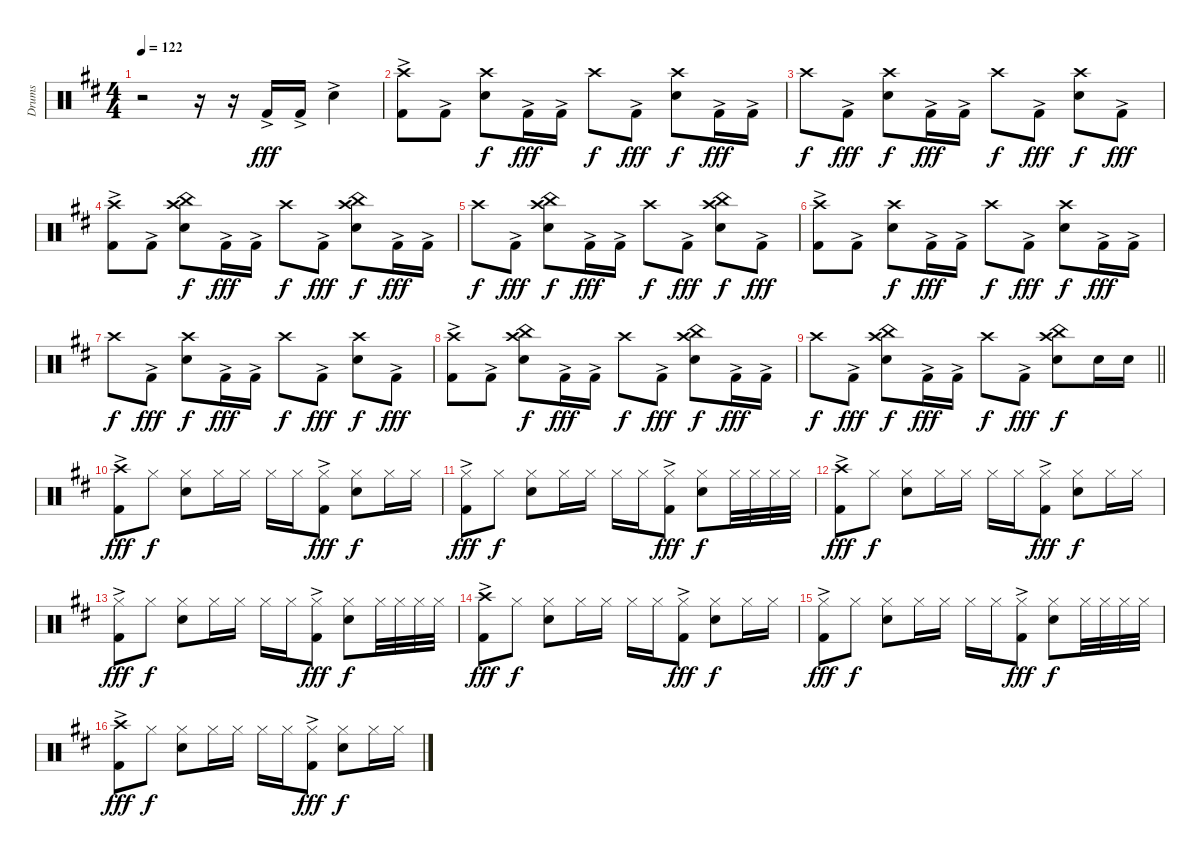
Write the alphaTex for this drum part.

\track ("Drums" "Drums") {instrument percussion}
\staff {score}
\articulation defaults
\ts (4 4)
\tempo 122
\clef neutral
\ks bminor
r.2{dy fff} r.16 r.16 "Kick (hit) 2"{ac}.16 "Kick (hit) 2"{ac}.16 "Snare (hit) 2"{ac}.4 |
("Crash high (hit)" "Kick (hit) 2"{ac}).8 "Kick (hit) 2"{ac}.8 ("Crash high (hit)" "Snare (hit) 2").8{dy f} "Kick (hit) 2"{ac}.16{dy fff} "Kick (hit) 2"{ac}.16 "Crash high (hit)".8{dy f} "Kick (hit) 2"{ac}.8{dy fff} ("Crash high (hit)" "Snare (hit) 2").8{dy f} "Kick (hit) 2"{ac}.16{dy fff} "Kick (hit) 2"{ac}.16 |
"Crash high (hit)".8{dy f} "Kick (hit) 2"{ac}.8{dy fff} ("Crash high (hit)" "Snare (hit) 2").8{dy f} "Kick (hit) 2"{ac}.16{dy fff} "Kick (hit) 2"{ac}.16 "Crash high (hit)".8{dy f} "Kick (hit) 2"{ac}.8{dy fff} ("Crash high (hit)" "Snare (hit) 2").8{dy f} "Kick (hit) 2"{ac}.8{dy fff} |
("Crash high (hit)" "Kick (hit) 2"{ac}).8 "Kick (hit) 2"{ac}.8 ("Crash high (hit)" "China (hit)" "Snare (hit) 2").8{dy f} "Kick (hit) 2"{ac}.16{dy fff} "Kick (hit) 2"{ac}.16 "Crash high (hit)".8{dy f} "Kick (hit) 2"{ac}.8{dy fff} ("Crash high (hit)" "China (hit)" "Snare (hit) 2").8{dy f} "Kick (hit) 2"{ac}.16{dy fff} "Kick (hit) 2"{ac}.16 |
"Crash high (hit)".8{dy f} "Kick (hit) 2"{ac}.8{dy fff} ("Crash high (hit)" "China (hit)" "Snare (hit) 2").8{dy f} "Kick (hit) 2"{ac}.16{dy fff} "Kick (hit) 2"{ac}.16 "Crash high (hit)".8{dy f} "Kick (hit) 2"{ac}.8{dy fff} ("Crash high (hit)" "China (hit)" "Snare (hit) 2").8{dy f} "Kick (hit) 2"{ac}.8{dy fff} |
("Crash high (hit)" "Kick (hit) 2"{ac}).8 "Kick (hit) 2"{ac}.8 ("Crash high (hit)" "Snare (hit) 2").8{dy f} "Kick (hit) 2"{ac}.16{dy fff} "Kick (hit) 2"{ac}.16 "Crash high (hit)".8{dy f} "Kick (hit) 2"{ac}.8{dy fff} ("Crash high (hit)" "Snare (hit) 2").8{dy f} "Kick (hit) 2"{ac}.16{dy fff} "Kick (hit) 2"{ac}.16 |
"Crash high (hit)".8{dy f} "Kick (hit) 2"{ac}.8{dy fff} ("Crash high (hit)" "Snare (hit) 2").8{dy f} "Kick (hit) 2"{ac}.16{dy fff} "Kick (hit) 2"{ac}.16 "Crash high (hit)".8{dy f} "Kick (hit) 2"{ac}.8{dy fff} ("Crash high (hit)" "Snare (hit) 2").8{dy f} "Kick (hit) 2"{ac}.8{dy fff} |
("Crash high (hit)" "Kick (hit) 2"{ac}).8 "Kick (hit) 2"{ac}.8 ("Crash high (hit)" "China (hit)" "Snare (hit) 2").8{dy f} "Kick (hit) 2"{ac}.16{dy fff} "Kick (hit) 2"{ac}.16 "Crash high (hit)".8{dy f} "Kick (hit) 2"{ac}.8{dy fff} ("Crash high (hit)" "China (hit)" "Snare (hit) 2").8{dy f} "Kick (hit) 2"{ac}.16{dy fff} "Kick (hit) 2"{ac}.16 |
\barLineRight lightlight "Crash high (hit)".8{dy f} "Kick (hit) 2"{ac}.8{dy fff}
("Crash high (hit)" "China (hit)" "Snare (hit) 2").8{dy f} "Kick (hit) 2"{ac}.16{dy fff} "Kick (hit) 2"{ac}.16 "Crash high (hit)".8{dy f} "Kick (hit) 2"{ac}.8{dy fff} ("Crash high (hit)" "China (hit)" "Snare (hit) 2").8{dy f} "Snare (hit) 2".16 "Snare (hit) 2".16 |
("Crash high (hit)" "Kick (hit) 2"{ac}).8{dy fff} "Hi-Hat (closed)".8{dy f} ("Hi-Hat (closed)" "Snare (hit) 2").8 "Hi-Hat (closed)".16 "Hi-Hat (closed)".16 "Hi-Hat (closed)".16 "Hi-Hat (closed)".16 ("Hi-Hat (closed)" "Kick (hit) 2"{ac}).8{dy fff} ("Hi-Hat (closed)" "Snare (hit) 2").8{dy f} "Hi-Hat (closed)".16 "Hi-Hat (closed)".16 |
("Hi-Hat (closed)" "Kick (hit) 2"{ac}).8{dy fff} "Hi-Hat (closed)".8{dy f} ("Hi-Hat (closed)" "Snare (hit) 2").8 "Hi-Hat (closed)".16 "Hi-Hat (closed)".16 "Hi-Hat (closed)".16 "Hi-Hat (closed)".16 ("Hi-Hat (closed)" "Kick (hit) 2"{ac}).8{dy fff} ("Hi-Hat (closed)" "Snare (hit) 2").8{dy f} "Hi-Hat (closed)".32 "Hi-Hat (closed)".32 "Hi-Hat (closed)".32 "Hi-Hat (closed)".32 |
("Crash high (hit)" "Kick (hit) 2"{ac}).8{dy fff} "Hi-Hat (closed)".8{dy f} ("Hi-Hat (closed)" "Snare (hit) 2").8 "Hi-Hat (closed)".16 "Hi-Hat (closed)".16 "Hi-Hat (closed)".16 "Hi-Hat (closed)".16 ("Hi-Hat (closed)" "Kick (hit) 2"{ac}).8{dy fff} ("Hi-Hat (closed)" "Snare (hit) 2").8{dy f} "Hi-Hat (closed)".16 "Hi-Hat (closed)".16 |
("Hi-Hat (closed)" "Kick (hit) 2"{ac}).8{dy fff} "Hi-Hat (closed)".8{dy f} ("Hi-Hat (closed)" "Snare (hit) 2").8 "Hi-Hat (closed)".16 "Hi-Hat (closed)".16 "Hi-Hat (closed)".16 "Hi-Hat (closed)".16 ("Hi-Hat (closed)" "Kick (hit) 2"{ac}).8{dy fff} ("Hi-Hat (closed)" "Snare (hit) 2").8{dy f} "Hi-Hat (closed)".32 "Hi-Hat (closed)".32 "Hi-Hat (closed)".32 "Hi-Hat (closed)".32 |
("Crash high (hit)" "Kick (hit) 2"{ac}).8{dy fff} "Hi-Hat (closed)".8{dy f} ("Hi-Hat (closed)" "Snare (hit) 2").8 "Hi-Hat (closed)".16 "Hi-Hat (closed)".16 "Hi-Hat (closed)".16 "Hi-Hat (closed)".16 ("Hi-Hat (closed)" "Kick (hit) 2"{ac}).8{dy fff} ("Hi-Hat (closed)" "Snare (hit) 2").8{dy f} "Hi-Hat (closed)".16 "Hi-Hat (closed)".16 |
("Hi-Hat (closed)" "Kick (hit) 2"{ac}).8{dy fff} "Hi-Hat (closed)".8{dy f} ("Hi-Hat (closed)" "Snare (hit) 2").8 "Hi-Hat (closed)".16 "Hi-Hat (closed)".16 "Hi-Hat (closed)".16 "Hi-Hat (closed)".16 ("Hi-Hat (closed)" "Kick (hit) 2"{ac}).8{dy fff} ("Hi-Hat (closed)" "Snare (hit) 2").8{dy f} "Hi-Hat (closed)".32 "Hi-Hat (closed)".32 "Hi-Hat (closed)".32 "Hi-Hat (closed)".32 |
("Crash high (hit)" "Kick (hit) 2"{ac}).8{dy fff} "Hi-Hat (closed)".8{dy f} ("Hi-Hat (closed)" "Snare (hit) 2").8 "Hi-Hat (closed)".16 "Hi-Hat (closed)".16 "Hi-Hat (closed)".16 "Hi-Hat (closed)".16 ("Hi-Hat (closed)" "Kick (hit) 2"{ac}).8{dy fff} ("Hi-Hat (closed)" "Snare (hit) 2").8{dy f} "Hi-Hat (closed)".16 "Hi-Hat (closed)".16
